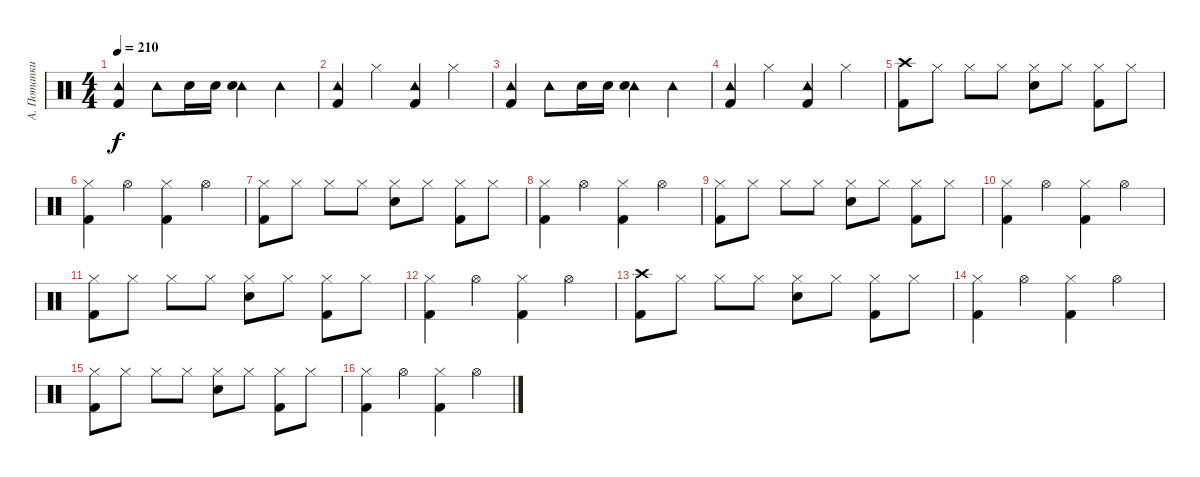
\track ("А. Потапкин" "А. Потапки") {instrument percussion}
\staff {score}
\articulation defaults
\ts (4 4)
\tempo 210
\clef neutral
\ks c
("Tambourine (hit)" "Kick (hit) 2").4{dy f} "Tambourine (hit)".8 "Electric Snare (hit)".16 "Electric Snare (hit)".16 ("Tambourine (hit)" "Electric Snare (hit)").4 "Tambourine (hit)".4 |
("Tambourine (hit)" "Kick (hit) 2").4 "Hi-Hat (closed)".4 ("Tambourine (hit)" "Kick (hit) 2").4 "Hi-Hat (closed)".4 |
("Tambourine (hit)" "Kick (hit) 2").4 "Tambourine (hit)".8 "Electric Snare (hit)".16 "Electric Snare (hit)".16 ("Tambourine (hit)" "Electric Snare (hit)").4 "Tambourine (hit)".4 |
("Tambourine (hit)" "Kick (hit) 2").4 "Hi-Hat (closed)".4 ("Tambourine (hit)" "Kick (hit) 2").4 "Hi-Hat (closed)".4 |
("Crash high (hit)" "Kick (hit) 2").8 "Hi-Hat (closed)".8 "Hi-Hat (closed)".8 "Hi-Hat (closed)".8 ("Hi-Hat (closed)" "Snare (hit) 2").8 "Hi-Hat (closed)".8 ("Hi-Hat (closed)" "Kick (hit) 2").8 "Hi-Hat (closed)".8 |
("Hi-Hat (closed)" "Kick (hit) 2").4 "Hi-Hat (open)".4 ("Hi-Hat (closed)" "Kick (hit) 2").4 "Hi-Hat (open)".4 |
("Hi-Hat (closed)" "Kick (hit) 2").8 "Hi-Hat (closed)".8 "Hi-Hat (closed)".8 "Hi-Hat (closed)".8 ("Hi-Hat (closed)" "Snare (hit) 2").8 "Hi-Hat (closed)".8 ("Hi-Hat (closed)" "Kick (hit) 2").8 "Hi-Hat (closed)".8 |
("Hi-Hat (closed)" "Kick (hit) 2").4 "Hi-Hat (open)".4 ("Hi-Hat (closed)" "Kick (hit) 2").4 "Hi-Hat (open)".4 |
("Hi-Hat (closed)" "Kick (hit) 2").8 "Hi-Hat (closed)".8 "Hi-Hat (closed)".8 "Hi-Hat (closed)".8 ("Hi-Hat (closed)" "Snare (hit) 2").8 "Hi-Hat (closed)".8 ("Hi-Hat (closed)" "Kick (hit) 2").8 "Hi-Hat (closed)".8 |
("Hi-Hat (closed)" "Kick (hit) 2").4 "Hi-Hat (open)".4 ("Hi-Hat (closed)" "Kick (hit) 2").4 "Hi-Hat (open)".4 |
("Hi-Hat (closed)" "Kick (hit) 2").8 "Hi-Hat (closed)".8 "Hi-Hat (closed)".8 "Hi-Hat (closed)".8 ("Hi-Hat (closed)" "Snare (hit) 2").8 "Hi-Hat (closed)".8 ("Hi-Hat (closed)" "Kick (hit) 2").8 "Hi-Hat (closed)".8 |
("Hi-Hat (closed)" "Kick (hit) 2").4 "Hi-Hat (open)".4 ("Hi-Hat (closed)" "Kick (hit) 2").4 "Hi-Hat (open)".4 |
("Crash high (hit)" "Kick (hit) 2").8 "Hi-Hat (closed)".8 "Hi-Hat (closed)".8 "Hi-Hat (closed)".8 ("Hi-Hat (closed)" "Snare (hit) 2").8 "Hi-Hat (closed)".8 ("Hi-Hat (closed)" "Kick (hit) 2").8 "Hi-Hat (closed)".8 |
("Hi-Hat (closed)" "Kick (hit) 2").4 "Hi-Hat (open)".4 ("Hi-Hat (closed)" "Kick (hit) 2").4 "Hi-Hat (open)".4 |
("Hi-Hat (closed)" "Kick (hit) 2").8 "Hi-Hat (closed)".8 "Hi-Hat (closed)".8 "Hi-Hat (closed)".8 ("Hi-Hat (closed)" "Snare (hit) 2").8 "Hi-Hat (closed)".8 ("Hi-Hat (closed)" "Kick (hit) 2").8 "Hi-Hat (closed)".8 |
("Hi-Hat (closed)" "Kick (hit) 2").4 "Hi-Hat (open)".4 ("Hi-Hat (closed)" "Kick (hit) 2").4 "Hi-Hat (open)".4
